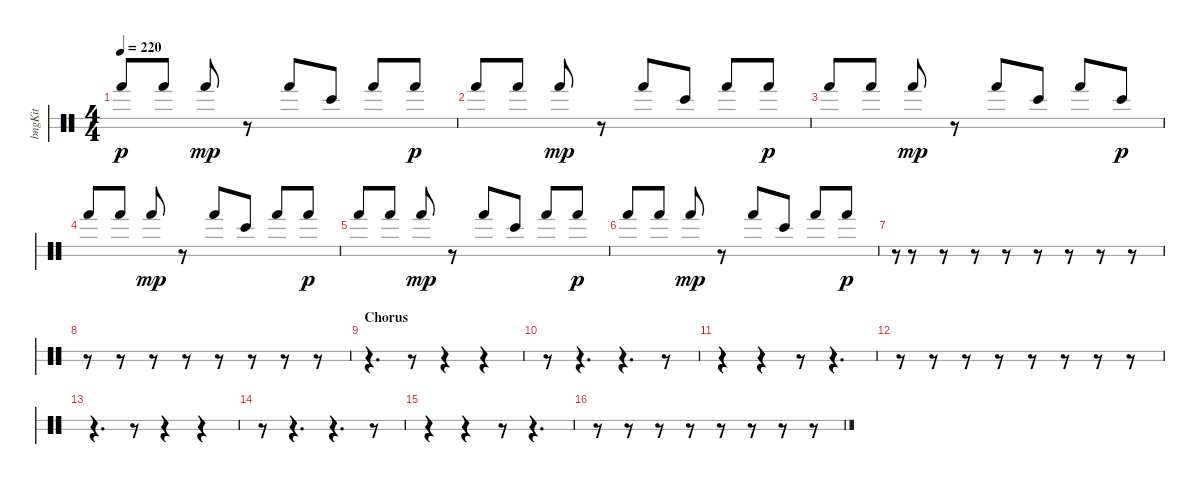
\bracketExtendMode groupsimilarinstruments
\otherSystemsTrackNameOrientation horizontal
\track ("Bongos" "bngKit") {instrument percussion}
\staff {score 2}
\articulation defaults
\ts (4 4)
\tempo 220
\clef neutral
\ks c "Hand (hit)".8{dy p beam Up} "Hand (hit)".8{beam Up} "Hand (hit)".8{dy mp beam Up}
r.8{beam Up} "Hand (hit)".8{beam Up} "Bongo High (hit)".8{beam Up} "Hand (hit)".8{beam Up} "Hand (hit)".8{dy p beam Up} |
"Hand (hit)".8{beam Up} "Hand (hit)".8{beam Up} "Hand (hit)".8{dy mp beam Up} r.8{beam Up} "Hand (hit)".8{beam Up} "Bongo High (hit)".8{beam Up} "Hand (hit)".8{beam Up} "Hand (hit)".8{dy p beam Up} |
"Hand (hit)".8{beam Up} "Hand (hit)".8{beam Up} "Hand (hit)".8{dy mp beam Up} r.8{beam Up} "Hand (hit)".8{beam Up} "Bongo High (hit)".8{beam Up} "Hand (hit)".8{beam Up} "Bongo High (hit)".8{dy p beam Up} |
"Hand (hit)".8{beam Up} "Hand (hit)".8{beam Up} "Hand (hit)".8{dy mp beam Up} r.8{beam Up} "Hand (hit)".8{beam Up} "Bongo High (hit)".8{beam Up} "Hand (hit)".8{beam Up} "Hand (hit)".8{dy p beam Up} |
"Hand (hit)".8{beam Up} "Hand (hit)".8{beam Up} "Hand (hit)".8{dy mp beam Up} r.8{beam Up} "Hand (hit)".8{beam Up} "Bongo High (hit)".8{beam Up} "Hand (hit)".8{beam Up} "Hand (hit)".8{dy p beam Up} |
"Hand (hit)".8{beam Up} "Hand (hit)".8{beam Up} "Hand (hit)".8{dy mp beam Up} r.8{beam Up} "Hand (hit)".8{beam Up} "Bongo High (hit)".8{beam Up} "Hand (hit)".8{beam Up} "Hand (hit)".8{dy p beam Up} |
r.8{gr beam Up} r.8{beam Down} r.8{beam Down} r.8{beam Down} r.8{beam Down} r.8{beam Down} r.8{beam Down} r.8{beam Down} r.8{beam Down} |
r.8{beam Down} r.8{beam Down} r.8{beam Down} r.8{beam Down} r.8{beam Down} r.8{beam Down} r.8{beam Down} r.8{beam Down} |
\section ("" "Chorus")
r.4{d beam Down} r.8{beam Down} r.4{beam Down} r.4{beam Down} |
r.8{beam Down} r.4{d beam Down} r.4{d beam Down} r.8{beam Down} |
r.4{beam Down} r.4{beam Down} r.8{beam Down} r.4{d beam Down} |
r.8{beam Down} r.8{beam Down} r.8{beam Down} r.8{beam Down} r.8{beam Down} r.8{beam Down} r.8{beam Down} r.8{beam Down} |
r.4{d beam Down} r.8{beam Down} r.4{beam Down} r.4{beam Down} |
r.8{beam Down} r.4{d beam Down} r.4{d beam Down} r.8{beam Down} |
r.4{beam Down} r.4{beam Down} r.8{beam Down} r.4{d beam Down} |
r.8{beam Down} r.8{beam Down} r.8{beam Down} r.8{beam Down} r.8{beam Down} r.8{beam Down} r.8{beam Down} r.8{beam Down}
